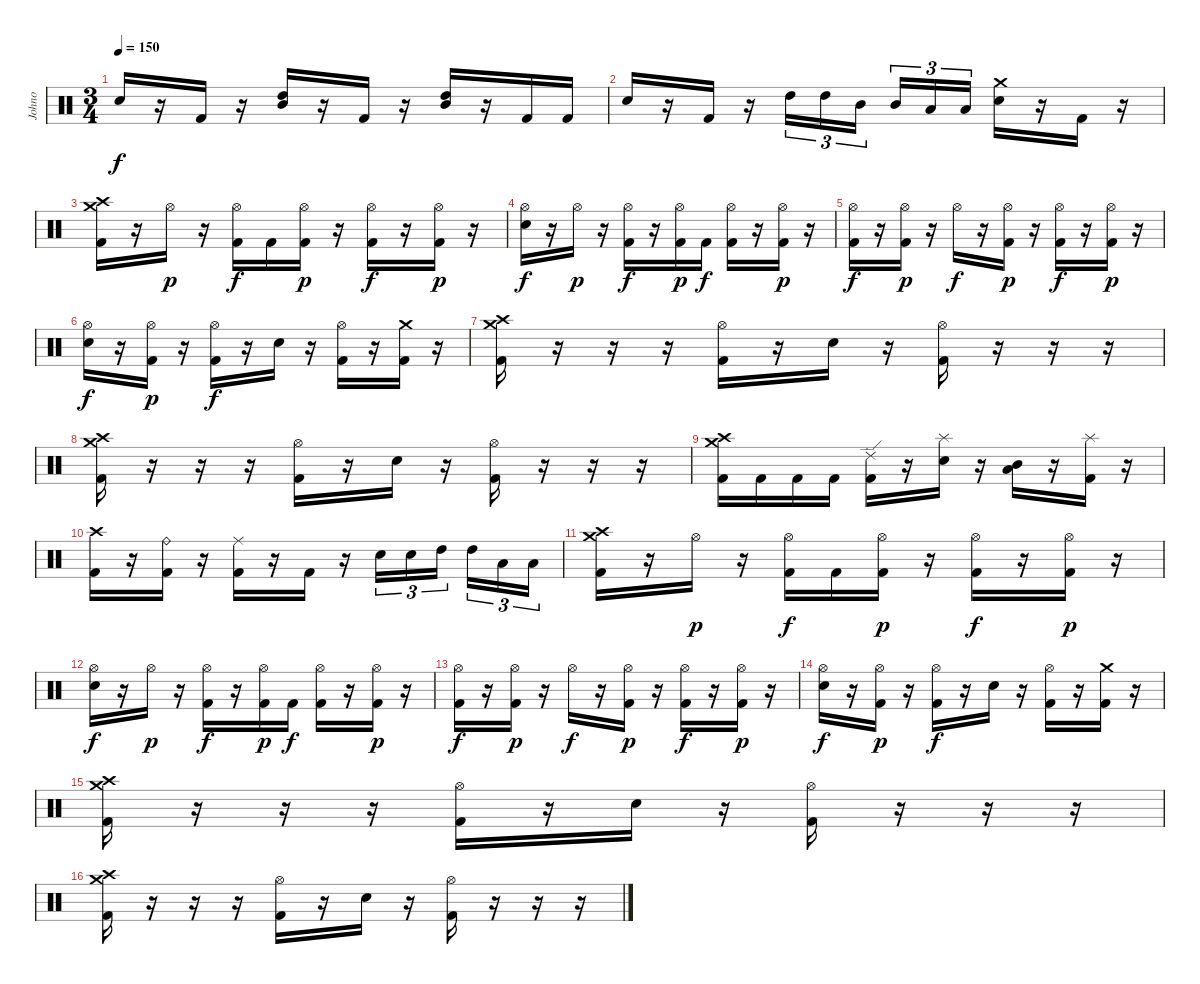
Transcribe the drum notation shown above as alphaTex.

\track ("Johno" "Johno") {instrument percussion}
\staff {score}
\articulation defaults
\ts (3 4)
\tempo 150
\clef neutral
\ks c "Electric Snare (hit)".16{dy f}
r.16 "Kick (hit) 2".16 r.16 ("High Tom (hit)" "Mid Tom (hit)").16 r.16 "Kick (hit) 2".16 r.16 ("High Tom (hit)" "Mid Tom (hit)").16 r.16 "Kick (hit) 2".16 "Kick (hit) 2".16 |
"Electric Snare (hit)".16 r.16 "Kick (hit) 2".16 r.16 "High Tom (hit)".16{tu (3 2)} "High Tom (hit)".16{tu (3 2)} "Mid Tom (hit)".16{tu (3 2) beam splitsecondary} "Mid Tom (hit)".16{tu (3 2)} "Low Floor Tom (hit)".16{tu (3 2)} "Low Floor Tom (hit)".16{tu (3 2)} ("Crash medium (hit)" "Electric Snare (hit)").16 r.16 "Kick (hit) 2".16 r.16 |
("Crash medium (hit)" "Crash high (hit)" "Kick (hit) 2").16 r.16 "Hi-Hat (open)".16{dy p} r.16 ("Hi-Hat (open)" "Kick (hit) 2").16{dy f} "Kick (hit) 2".16 ("Hi-Hat (open)" "Kick (hit) 2").16{dy p} r.16 ("Hi-Hat (open)" "Kick (hit) 2").16{dy f} r.16 ("Hi-Hat (open)" "Kick (hit) 2").16{dy p} r.16 |
("Hi-Hat (open)" "Electric Snare (hit)").16{dy f} r.16 "Hi-Hat (open)".16{dy p} r.16 ("Hi-Hat (open)" "Kick (hit) 2").16{dy f} r.16 ("Hi-Hat (open)" "Kick (hit) 2").16{dy p} "Kick (hit) 2".16{dy f} ("Hi-Hat (open)" "Kick (hit) 2").16 r.16 ("Hi-Hat (open)" "Kick (hit) 2").16{dy p} r.16 |
("Hi-Hat (open)" "Kick (hit) 2").16{dy f} r.16 ("Hi-Hat (open)" "Kick (hit) 2").16{dy p} r.16 "Hi-Hat (open)".16{dy f} r.16 ("Hi-Hat (open)" "Kick (hit) 2").16{dy p} r.16 ("Hi-Hat (open)" "Kick (hit) 2").16{dy f} r.16 ("Hi-Hat (open)" "Kick (hit) 2").16{dy p} r.16 |
("Hi-Hat (open)" "Electric Snare (hit)").16{dy f} r.16 ("Hi-Hat (open)" "Kick (hit) 2").16{dy p} r.16 ("Hi-Hat (open)" "Kick (hit) 2").16{dy f} r.16 "Electric Snare (hit)".16 r.16 ("Hi-Hat (open)" "Kick (hit) 2").16 r.16 ("Crash medium (hit)" "Kick (hit) 2").16 r.16 |
("Crash medium (hit)" "Crash high (hit)" "Kick (hit) 2").16 r.16 r.16 r.16 ("Hi-Hat (open)" "Kick (hit) 2").16 r.16 "Electric Snare (hit)".16 r.16 ("Hi-Hat (open)" "Kick (hit) 2").16 r.16 r.16 r.16 |
("Crash medium (hit)" "Crash high (hit)" "Kick (hit) 2").16 r.16 r.16 r.16 ("Hi-Hat (open)" "Kick (hit) 2").16 r.16 "Electric Snare (hit)".16 r.16 ("Hi-Hat (open)" "Kick (hit) 2").16 r.16 r.16 r.16 |
("Crash medium (hit)" "Crash high (hit)" "Kick (hit) 2").16 "Kick (hit) 2".16 "Kick (hit) 2".16 "Kick (hit) 2".16 ("Ride (edge) 2" "Kick (hit) 2").16 r.16 ("Splash (hit)" "Electric Snare (hit)").16 r.16 ("Low Floor Tom (hit)" "Mid Tom (hit)").16 r.16 ("Splash (hit)" "Kick (hit) 2").16 r.16 |
("Crash high (hit)" "Kick (hit) 2").16 r.16 ("Ride (bell)" "Kick (hit) 2").16 r.16 ("Ride (middle)" "Kick (hit) 2").16 r.16 "Kick (hit) 2".16 r.16 "Electric Snare (hit)".16{tu (3 2)} "Electric Snare (hit)".16{tu (3 2)} "High Tom (hit)".16{tu (3 2) beam splitsecondary} "High Tom (hit)".16{tu (3 2)} "Low Floor Tom (hit)".16{tu (3 2)} "Low Floor Tom (hit)".16{tu (3 2)} |
("Crash medium (hit)" "Crash high (hit)" "Kick (hit) 2").16 r.16 "Hi-Hat (open)".16{dy p} r.16 ("Hi-Hat (open)" "Kick (hit) 2").16{dy f} "Kick (hit) 2".16 ("Hi-Hat (open)" "Kick (hit) 2").16{dy p} r.16 ("Hi-Hat (open)" "Kick (hit) 2").16{dy f} r.16 ("Hi-Hat (open)" "Kick (hit) 2").16{dy p} r.16 |
("Hi-Hat (open)" "Electric Snare (hit)").16{dy f} r.16 "Hi-Hat (open)".16{dy p} r.16 ("Hi-Hat (open)" "Kick (hit) 2").16{dy f} r.16 ("Hi-Hat (open)" "Kick (hit) 2").16{dy p} "Kick (hit) 2".16{dy f} ("Hi-Hat (open)" "Kick (hit) 2").16 r.16 ("Hi-Hat (open)" "Kick (hit) 2").16{dy p} r.16 |
("Hi-Hat (open)" "Kick (hit) 2").16{dy f} r.16 ("Hi-Hat (open)" "Kick (hit) 2").16{dy p} r.16 "Hi-Hat (open)".16{dy f} r.16 ("Hi-Hat (open)" "Kick (hit) 2").16{dy p} r.16 ("Hi-Hat (open)" "Kick (hit) 2").16{dy f} r.16 ("Hi-Hat (open)" "Kick (hit) 2").16{dy p} r.16 |
("Hi-Hat (open)" "Electric Snare (hit)").16{dy f} r.16 ("Hi-Hat (open)" "Kick (hit) 2").16{dy p} r.16 ("Hi-Hat (open)" "Kick (hit) 2").16{dy f} r.16 "Electric Snare (hit)".16 r.16 ("Hi-Hat (open)" "Kick (hit) 2").16 r.16 ("Crash medium (hit)" "Kick (hit) 2").16 r.16 |
("Crash medium (hit)" "Crash high (hit)" "Kick (hit) 2").16 r.16 r.16 r.16 ("Hi-Hat (open)" "Kick (hit) 2").16 r.16 "Electric Snare (hit)".16 r.16 ("Hi-Hat (open)" "Kick (hit) 2").16 r.16 r.16 r.16 |
("Crash medium (hit)" "Crash high (hit)" "Kick (hit) 2").16 r.16 r.16 r.16 ("Hi-Hat (open)" "Kick (hit) 2").16 r.16 "Electric Snare (hit)".16 r.16 ("Hi-Hat (open)" "Kick (hit) 2").16 r.16 r.16 r.16
